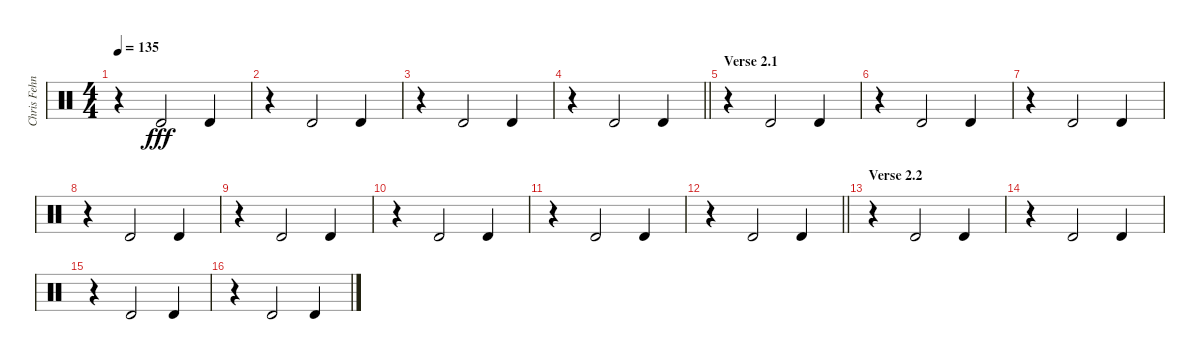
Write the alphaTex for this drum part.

\track ("Chris Fehn" "Chris Fehn") {instrument percussion}
\staff {score}
\articulation defaults
\ts (4 4)
\tempo 135
\clef neutral
\ks c
r.4{dy fff} "Timbale high (hit)".2 "Timbale high (hit)".4 |
r.4 "Timbale high (hit)".2 "Timbale high (hit)".4 |
r.4 "Timbale high (hit)".2 "Timbale high (hit)".4 |
\barLineRight lightlight
r.4 "Timbale high (hit)".2 "Timbale high (hit)".4 |
\section ("" "Verse 2.1")
r.4 "Timbale high (hit)".2 "Timbale high (hit)".4 |
r.4 "Timbale high (hit)".2 "Timbale high (hit)".4 |
r.4 "Timbale high (hit)".2 "Timbale high (hit)".4 |
r.4 "Timbale high (hit)".2 "Timbale high (hit)".4 |
r.4 "Timbale high (hit)".2 "Timbale high (hit)".4 |
r.4 "Timbale high (hit)".2 "Timbale high (hit)".4 |
r.4 "Timbale high (hit)".2 "Timbale high (hit)".4 |
\barLineRight lightlight
r.4 "Timbale high (hit)".2 "Timbale high (hit)".4 |
\section ("" "Verse 2.2")
r.4 "Timbale high (hit)".2 "Timbale high (hit)".4 |
r.4 "Timbale high (hit)".2 "Timbale high (hit)".4 |
r.4 "Timbale high (hit)".2 "Timbale high (hit)".4 |
r.4 "Timbale high (hit)".2 "Timbale high (hit)".4
